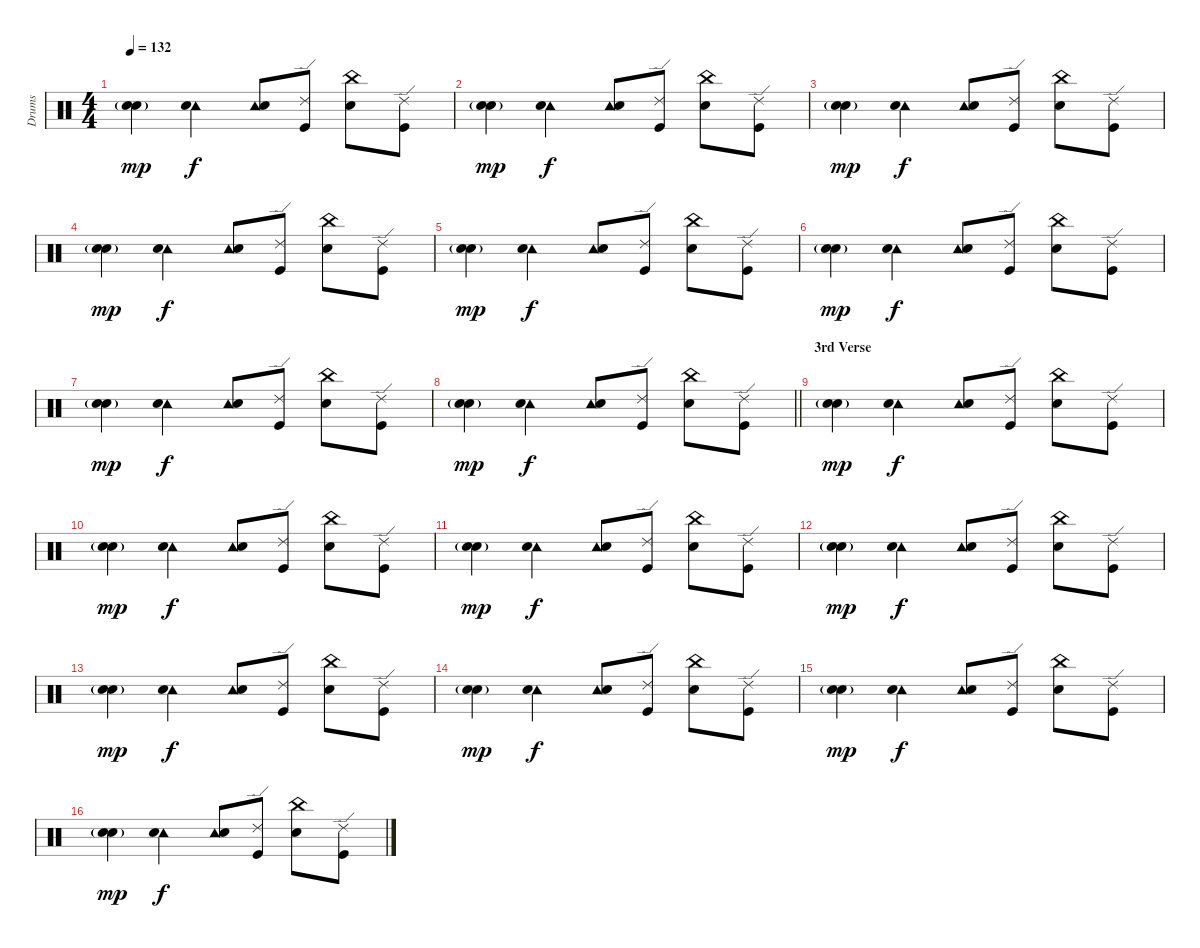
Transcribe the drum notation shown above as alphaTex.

\track ("Drums" "Drums") {instrument percussion}
\staff {score}
\articulation defaults
\ts (4 4)
\tempo 132
\clef neutral
\ks c
("Snare (hit) 2" "Electric Snare (hit)"{g}).4{dy mp} ("Tambourine (hit)" "Snare (hit) 2").4{dy f} ("Tambourine (hit)" "Snare (hit) 2").8 ("Ride (edge) 2" "Kick (hit)").8 ("China (hit)" "Snare (hit) 2").8 ("Ride (edge) 2" "Kick (hit)").8 |
("Snare (hit) 2" "Electric Snare (hit)"{g}).4{dy mp} ("Tambourine (hit)" "Snare (hit) 2").4{dy f} ("Tambourine (hit)" "Snare (hit) 2").8 ("Ride (edge) 2" "Kick (hit)").8 ("China (hit)" "Snare (hit) 2").8 ("Ride (edge) 2" "Kick (hit)").8 |
("Snare (hit) 2" "Electric Snare (hit)"{g}).4{dy mp} ("Tambourine (hit)" "Snare (hit) 2").4{dy f} ("Tambourine (hit)" "Snare (hit) 2").8 ("Ride (edge) 2" "Kick (hit)").8 ("China (hit)" "Snare (hit) 2").8 ("Ride (edge) 2" "Kick (hit)").8 |
("Snare (hit) 2" "Electric Snare (hit)"{g}).4{dy mp} ("Tambourine (hit)" "Snare (hit) 2").4{dy f} ("Tambourine (hit)" "Snare (hit) 2").8 ("Ride (edge) 2" "Kick (hit)").8 ("China (hit)" "Snare (hit) 2").8 ("Ride (edge) 2" "Kick (hit)").8 |
("Snare (hit) 2" "Electric Snare (hit)"{g}).4{dy mp} ("Tambourine (hit)" "Snare (hit) 2").4{dy f} ("Tambourine (hit)" "Snare (hit) 2").8 ("Ride (edge) 2" "Kick (hit)").8 ("China (hit)" "Snare (hit) 2").8 ("Ride (edge) 2" "Kick (hit)").8 |
("Snare (hit) 2" "Electric Snare (hit)"{g}).4{dy mp} ("Tambourine (hit)" "Snare (hit) 2").4{dy f} ("Tambourine (hit)" "Snare (hit) 2").8 ("Ride (edge) 2" "Kick (hit)").8 ("China (hit)" "Snare (hit) 2").8 ("Ride (edge) 2" "Kick (hit)").8 |
("Snare (hit) 2" "Electric Snare (hit)"{g}).4{dy mp} ("Tambourine (hit)" "Snare (hit) 2").4{dy f} ("Tambourine (hit)" "Snare (hit) 2").8 ("Ride (edge) 2" "Kick (hit)").8 ("China (hit)" "Snare (hit) 2").8 ("Ride (edge) 2" "Kick (hit)").8 |
\barLineRight lightlight
("Snare (hit) 2" "Electric Snare (hit)"{g}).4{dy mp} ("Tambourine (hit)" "Snare (hit) 2").4{dy f} ("Tambourine (hit)" "Snare (hit) 2").8 ("Ride (edge) 2" "Kick (hit)").8 ("China (hit)" "Snare (hit) 2").8 ("Ride (edge) 2" "Kick (hit)").8 |
\section ("" "3rd Verse")
("Snare (hit) 2" "Electric Snare (hit)"{g}).4{dy mp} ("Tambourine (hit)" "Snare (hit) 2").4{dy f} ("Tambourine (hit)" "Snare (hit) 2").8 ("Ride (edge) 2" "Kick (hit)").8 ("China (hit)" "Snare (hit) 2").8 ("Ride (edge) 2" "Kick (hit)").8 |
("Snare (hit) 2" "Electric Snare (hit)"{g}).4{dy mp} ("Tambourine (hit)" "Snare (hit) 2").4{dy f} ("Tambourine (hit)" "Snare (hit) 2").8 ("Ride (edge) 2" "Kick (hit)").8 ("China (hit)" "Snare (hit) 2").8 ("Ride (edge) 2" "Kick (hit)").8 |
("Snare (hit) 2" "Electric Snare (hit)"{g}).4{dy mp} ("Tambourine (hit)" "Snare (hit) 2").4{dy f} ("Tambourine (hit)" "Snare (hit) 2").8 ("Ride (edge) 2" "Kick (hit)").8 ("China (hit)" "Snare (hit) 2").8 ("Ride (edge) 2" "Kick (hit)").8 |
("Snare (hit) 2" "Electric Snare (hit)"{g}).4{dy mp} ("Tambourine (hit)" "Snare (hit) 2").4{dy f} ("Tambourine (hit)" "Snare (hit) 2").8 ("Ride (edge) 2" "Kick (hit)").8 ("China (hit)" "Snare (hit) 2").8 ("Ride (edge) 2" "Kick (hit)").8 |
("Snare (hit) 2" "Electric Snare (hit)"{g}).4{dy mp} ("Tambourine (hit)" "Snare (hit) 2").4{dy f} ("Tambourine (hit)" "Snare (hit) 2").8 ("Ride (edge) 2" "Kick (hit)").8 ("China (hit)" "Snare (hit) 2").8 ("Ride (edge) 2" "Kick (hit)").8 |
("Snare (hit) 2" "Electric Snare (hit)"{g}).4{dy mp} ("Tambourine (hit)" "Snare (hit) 2").4{dy f} ("Tambourine (hit)" "Snare (hit) 2").8 ("Ride (edge) 2" "Kick (hit)").8 ("China (hit)" "Snare (hit) 2").8 ("Ride (edge) 2" "Kick (hit)").8 |
("Snare (hit) 2" "Electric Snare (hit)"{g}).4{dy mp} ("Tambourine (hit)" "Snare (hit) 2").4{dy f} ("Tambourine (hit)" "Snare (hit) 2").8 ("Ride (edge) 2" "Kick (hit)").8 ("China (hit)" "Snare (hit) 2").8 ("Ride (edge) 2" "Kick (hit)").8 |
("Snare (hit) 2" "Electric Snare (hit)"{g}).4{dy mp} ("Tambourine (hit)" "Snare (hit) 2").4{dy f} ("Tambourine (hit)" "Snare (hit) 2").8 ("Ride (edge) 2" "Kick (hit)").8 ("China (hit)" "Snare (hit) 2").8 ("Ride (edge) 2" "Kick (hit)").8
